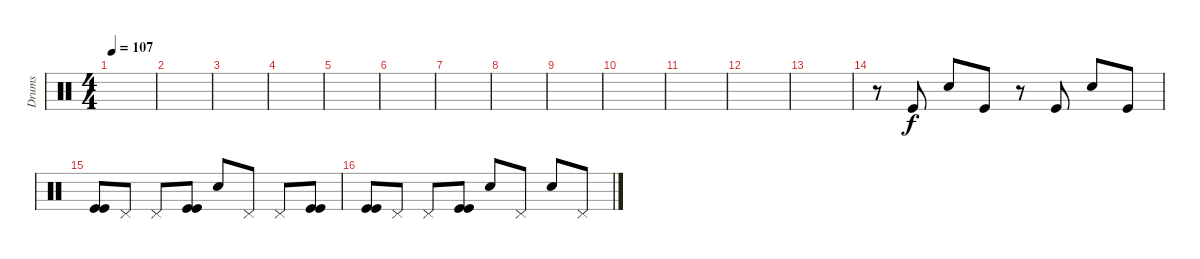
\track ("Drums" "Drums") {instrument percussion}
\staff
\articulation defaults
\ts (4 4)
\tempo 107
\clef neutral
\ks c
|
|
|
|
|
|
|
|
|
|
|
|
|
r.8 "Kick (hit)".8 "Electric Snare (hit)".8 "Kick (hit)".8 r.8 "Kick (hit)".8 "Electric Snare (hit)".8 "Kick (hit)".8 |
("Kick (hit)" "Kick (hit)").8 "Pedal Hi-Hat (hit)".8 "Pedal Hi-Hat (hit)".8 ("Kick (hit)" "Kick (hit)").8 "Electric Snare (hit)".8 "Pedal Hi-Hat (hit)".8 "Pedal Hi-Hat (hit)".8 ("Kick (hit)" "Kick (hit)").8 |
("Kick (hit)" "Kick (hit)").8 "Pedal Hi-Hat (hit)".8 "Pedal Hi-Hat (hit)".8 ("Kick (hit)" "Kick (hit)").8 "Electric Snare (hit)".8 "Pedal Hi-Hat (hit)".8 "Electric Snare (hit)".8 "Pedal Hi-Hat (hit)".8
